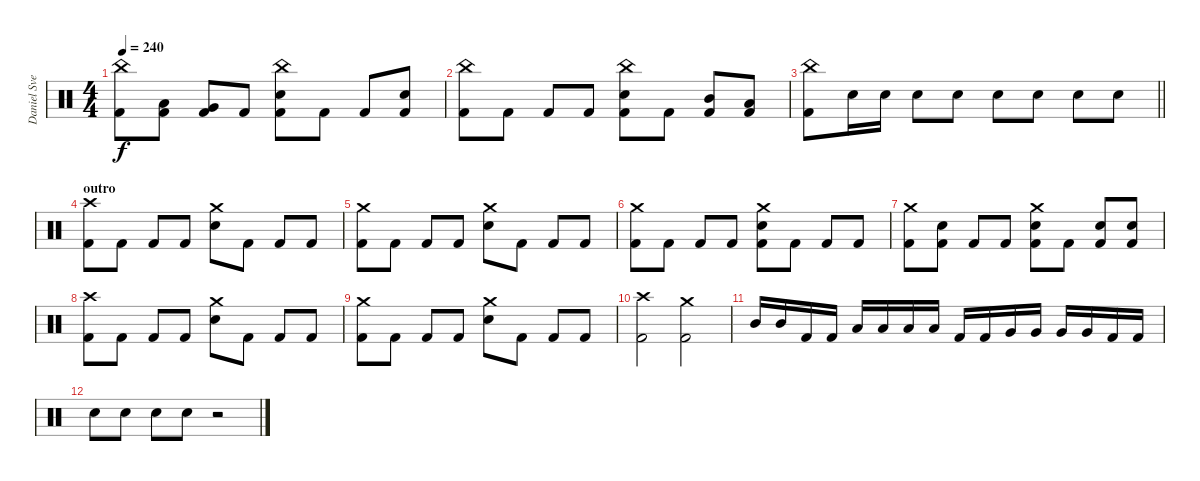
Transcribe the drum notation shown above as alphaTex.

\track ("Daniel Svensson" "Daniel Sve") {instrument percussion}
\staff {score}
\articulation defaults
\ts (4 4)
\tempo 240
\clef neutral
\ks c
("China (hit)" "Kick (hit) 2").8{dy f} ("Low Tom (hit)" "Kick (hit) 2").8 ("Very Low Tom (hit)" "Kick (hit) 2").8 "Kick (hit) 2".8 ("China (hit)" "Electric Snare (hit)" "Kick (hit) 2").8 "Kick (hit) 2".8 "Kick (hit) 2".8 ("Electric Snare (hit)" "Kick (hit) 2").8 |
("China (hit)" "Kick (hit) 2").8 "Kick (hit) 2".8 "Kick (hit) 2".8 "Kick (hit) 2".8 ("China (hit)" "Electric Snare (hit)" "Kick (hit) 2").8 "Kick (hit) 2".8 ("Mid Tom (hit)" "Kick (hit) 2").8 ("Low Tom (hit)" "Kick (hit) 2").8 |
\barLineRight lightlight
("China (hit)" "Kick (hit) 2").8 "Electric Snare (hit)".16 "Electric Snare (hit)".16 "Electric Snare (hit)".8 "Electric Snare (hit)".8 "Electric Snare (hit)".8 "Electric Snare (hit)".8 "Electric Snare (hit)".8 "Electric Snare (hit)".8 |
\section ("" "outro")
("Crash high (hit)" "Kick (hit) 2").8 "Kick (hit) 2".8 "Kick (hit) 2".8 "Kick (hit) 2".8 ("Crash medium (hit)" "Electric Snare (hit)").8 "Kick (hit) 2".8 "Kick (hit) 2".8 "Kick (hit) 2".8 |
("Crash medium (hit)" "Kick (hit) 2").8 "Kick (hit) 2".8 "Kick (hit) 2".8 "Kick (hit) 2".8 ("Crash medium (hit)" "Electric Snare (hit)").8 "Kick (hit) 2".8 "Kick (hit) 2".8 "Kick (hit) 2".8 |
("Crash medium (hit)" "Kick (hit) 2").8 "Kick (hit) 2".8 "Kick (hit) 2".8 "Kick (hit) 2".8 ("Crash medium (hit)" "Electric Snare (hit)" "Kick (hit) 2").8 "Kick (hit) 2".8 "Kick (hit) 2".8 "Kick (hit) 2".8 |
("Crash medium (hit)" "Kick (hit) 2").8 ("Electric Snare (hit)" "Kick (hit) 2").8 "Kick (hit) 2".8 "Kick (hit) 2".8 ("Crash medium (hit)" "Electric Snare (hit)" "Kick (hit) 2").8 "Kick (hit) 2".8 ("Electric Snare (hit)" "Kick (hit) 2").8 ("Electric Snare (hit)" "Kick (hit) 2").8 |
("Crash high (hit)" "Kick (hit) 2").8 "Kick (hit) 2".8 "Kick (hit) 2".8 "Kick (hit) 2".8 ("Crash medium (hit)" "Electric Snare (hit)").8 "Kick (hit) 2".8 "Kick (hit) 2".8 "Kick (hit) 2".8 |
("Crash medium (hit)" "Kick (hit) 2").8 "Kick (hit) 2".8 "Kick (hit) 2".8 "Kick (hit) 2".8 ("Crash medium (hit)" "Electric Snare (hit)").8 "Kick (hit) 2".8 "Kick (hit) 2".8 "Kick (hit) 2".8 |
("Crash high (hit)" "Kick (hit) 2").2 ("Crash medium (hit)" "Kick (hit) 2").2 |
"Mid Tom (hit)".16 "Mid Tom (hit)".16 "Kick (hit) 2".16 "Kick (hit) 2".16 "Low Tom (hit)".16 "Low Tom (hit)".16 "Low Tom (hit)".16 "Low Tom (hit)".16 "Kick (hit) 2".16 "Kick (hit) 2".16 "Very Low Tom (hit)".16 "Very Low Tom (hit)".16 "Very Low Tom (hit)".16 "Very Low Tom (hit)".16 "Kick (hit) 2".16 "Kick (hit) 2".16 |
"Electric Snare (hit)".8 "Electric Snare (hit)".8 "Electric Snare (hit)".8 "Electric Snare (hit)".8 r.2
